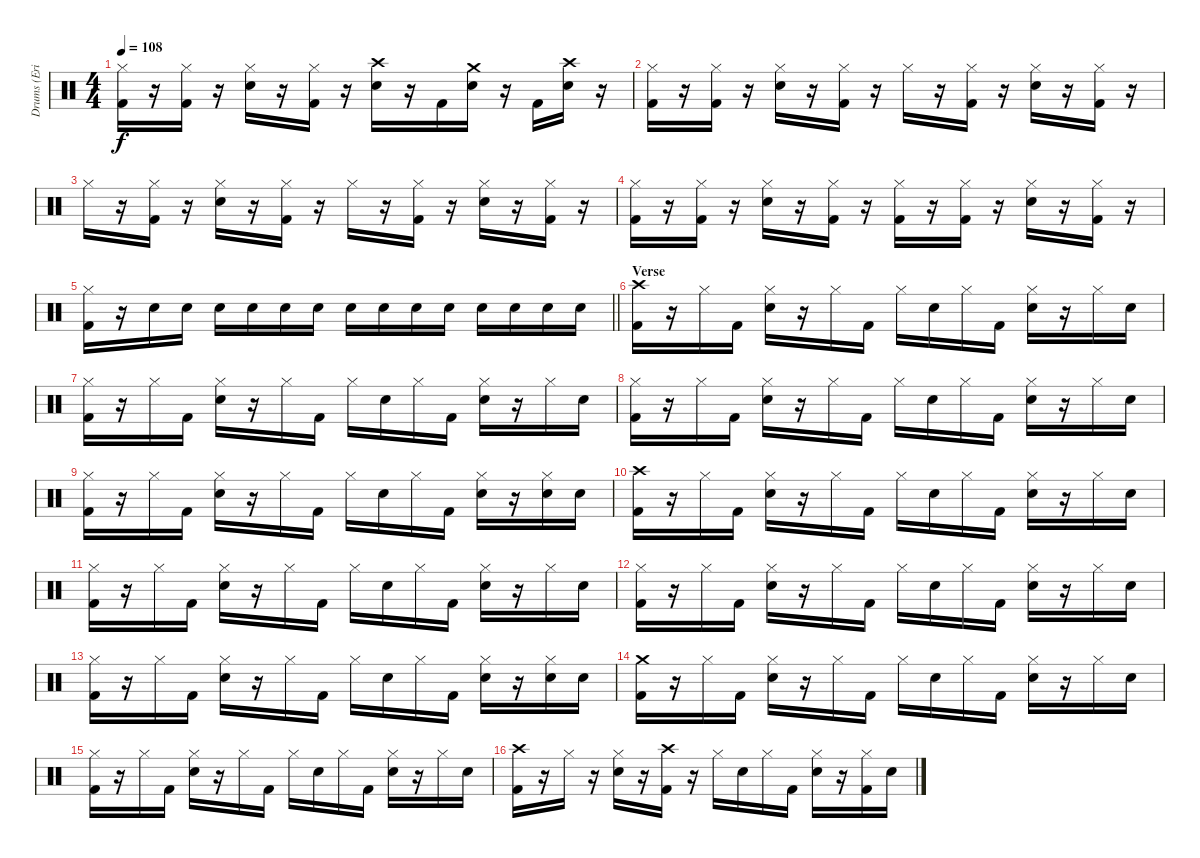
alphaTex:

\track ("Drums (Eric Kretz)" "Drums (Eri") {instrument percussion}
\staff {score}
\articulation defaults
\ts (4 4)
\tempo 108
\clef neutral
\ks c
("Hi-Hat (closed)" "Kick (hit) 2").16{dy f} r.16 ("Hi-Hat (closed)" "Kick (hit) 2").16 r.16 ("Hi-Hat (closed)" "Electric Snare (hit)").16 r.16 ("Hi-Hat (closed)" "Kick (hit) 2").16 r.16 ("Crash high (hit)" "Electric Snare (hit)").16 r.16 "Kick (hit) 2".16 ("Crash medium (hit)" "Electric Snare (hit)").16 r.16 "Kick (hit) 2".16 ("Crash high (hit)" "Electric Snare (hit)").16 r.16 |
("Hi-Hat (closed)" "Kick (hit) 2").16 r.16 ("Hi-Hat (closed)" "Kick (hit) 2").16 r.16 ("Hi-Hat (closed)" "Electric Snare (hit)").16 r.16 ("Hi-Hat (closed)" "Kick (hit) 2").16 r.16 "Hi-Hat (closed)".16 r.16 ("Hi-Hat (closed)" "Kick (hit) 2").16 r.16 ("Hi-Hat (closed)" "Electric Snare (hit)").16 r.16 ("Hi-Hat (closed)" "Kick (hit) 2").16 r.16 |
"Hi-Hat (closed)".16 r.16 ("Hi-Hat (closed)" "Kick (hit) 2").16 r.16 ("Hi-Hat (closed)" "Electric Snare (hit)").16 r.16 ("Hi-Hat (closed)" "Kick (hit) 2").16 r.16 "Hi-Hat (closed)".16 r.16 ("Hi-Hat (closed)" "Kick (hit) 2").16 r.16 ("Hi-Hat (closed)" "Electric Snare (hit)").16 r.16 ("Hi-Hat (closed)" "Kick (hit) 2").16 r.16 |
("Hi-Hat (closed)" "Kick (hit) 2").16 r.16 ("Hi-Hat (closed)" "Kick (hit) 2").16 r.16 ("Hi-Hat (closed)" "Electric Snare (hit)").16 r.16 ("Hi-Hat (closed)" "Kick (hit) 2").16 r.16 ("Hi-Hat (closed)" "Kick (hit) 2").16 r.16 ("Hi-Hat (closed)" "Kick (hit) 2").16 r.16 ("Hi-Hat (closed)" "Electric Snare (hit)").16 r.16 ("Hi-Hat (closed)" "Kick (hit) 2").16 r.16 |
\barLineRight lightlight
("Hi-Hat (closed)" "Kick (hit) 2").16 r.16 "Electric Snare (hit)".16 "Electric Snare (hit)".16 "Electric Snare (hit)".16 "Electric Snare (hit)".16 "Electric Snare (hit)".16 "Electric Snare (hit)".16 "Electric Snare (hit)".16 "Electric Snare (hit)".16 "Electric Snare (hit)".16 "Electric Snare (hit)".16 "Electric Snare (hit)".16 "Electric Snare (hit)".16 "Electric Snare (hit)".16 "Electric Snare (hit)".16 |
\section ("" "Verse")
("Crash high (hit)" "Kick (hit) 2").16 r.16 "Hi-Hat (closed)".16 "Kick (hit) 2".16 ("Hi-Hat (closed)" "Electric Snare (hit)").16 r.16 "Hi-Hat (closed)".16 "Kick (hit) 2".16 "Hi-Hat (closed)".16 "Electric Snare (hit)".16 "Hi-Hat (closed)".16 "Kick (hit) 2".16 ("Hi-Hat (closed)" "Electric Snare (hit)").16 r.16 "Hi-Hat (closed)".16 "Electric Snare (hit)".16 |
("Hi-Hat (closed)" "Kick (hit) 2").16 r.16 "Hi-Hat (closed)".16 "Kick (hit) 2".16 ("Hi-Hat (closed)" "Electric Snare (hit)").16 r.16 "Hi-Hat (closed)".16 "Kick (hit) 2".16 "Hi-Hat (closed)".16 "Electric Snare (hit)".16 "Hi-Hat (closed)".16 "Kick (hit) 2".16 ("Hi-Hat (closed)" "Electric Snare (hit)").16 r.16 "Hi-Hat (closed)".16 "Electric Snare (hit)".16 |
("Hi-Hat (closed)" "Kick (hit) 2").16 r.16 "Hi-Hat (closed)".16 "Kick (hit) 2".16 ("Hi-Hat (closed)" "Electric Snare (hit)").16 r.16 "Hi-Hat (closed)".16 "Kick (hit) 2".16 "Hi-Hat (closed)".16 "Electric Snare (hit)".16 "Hi-Hat (closed)".16 "Kick (hit) 2".16 ("Hi-Hat (closed)" "Electric Snare (hit)").16 r.16 "Hi-Hat (closed)".16 "Electric Snare (hit)".16 |
("Hi-Hat (closed)" "Kick (hit) 2").16 r.16 "Hi-Hat (closed)".16 "Kick (hit) 2".16 ("Hi-Hat (closed)" "Electric Snare (hit)").16 r.16 "Hi-Hat (closed)".16 "Kick (hit) 2".16 "Hi-Hat (closed)".16 "Electric Snare (hit)".16 "Hi-Hat (closed)".16 "Kick (hit) 2".16 ("Hi-Hat (closed)" "Electric Snare (hit)").16 r.16 ("Hi-Hat (closed)" "Electric Snare (hit)").16 "Electric Snare (hit)".16 |
("Crash high (hit)" "Kick (hit) 2").16 r.16 "Hi-Hat (closed)".16 "Kick (hit) 2".16 ("Hi-Hat (closed)" "Electric Snare (hit)").16 r.16 "Hi-Hat (closed)".16 "Kick (hit) 2".16 "Hi-Hat (closed)".16 "Electric Snare (hit)".16 "Hi-Hat (closed)".16 "Kick (hit) 2".16 ("Hi-Hat (closed)" "Electric Snare (hit)").16 r.16 "Hi-Hat (closed)".16 "Electric Snare (hit)".16 |
("Hi-Hat (closed)" "Kick (hit) 2").16 r.16 "Hi-Hat (closed)".16 "Kick (hit) 2".16 ("Hi-Hat (closed)" "Electric Snare (hit)").16 r.16 "Hi-Hat (closed)".16 "Kick (hit) 2".16 "Hi-Hat (closed)".16 "Electric Snare (hit)".16 "Hi-Hat (closed)".16 "Kick (hit) 2".16 ("Hi-Hat (closed)" "Electric Snare (hit)").16 r.16 "Hi-Hat (closed)".16 "Electric Snare (hit)".16 |
("Hi-Hat (closed)" "Kick (hit) 2").16 r.16 "Hi-Hat (closed)".16 "Kick (hit) 2".16 ("Hi-Hat (closed)" "Electric Snare (hit)").16 r.16 "Hi-Hat (closed)".16 "Kick (hit) 2".16 "Hi-Hat (closed)".16 "Electric Snare (hit)".16 "Hi-Hat (closed)".16 "Kick (hit) 2".16 ("Hi-Hat (closed)" "Electric Snare (hit)").16 r.16 "Hi-Hat (closed)".16 "Electric Snare (hit)".16 |
("Hi-Hat (closed)" "Kick (hit) 2").16 r.16 "Hi-Hat (closed)".16 "Kick (hit) 2".16 ("Hi-Hat (closed)" "Electric Snare (hit)").16 r.16 "Hi-Hat (closed)".16 "Kick (hit) 2".16 "Hi-Hat (closed)".16 "Electric Snare (hit)".16 "Hi-Hat (closed)".16 "Kick (hit) 2".16 ("Hi-Hat (closed)" "Electric Snare (hit)").16 r.16 ("Hi-Hat (closed)" "Electric Snare (hit)").16 "Electric Snare (hit)".16 |
("Crash medium (hit)" "Kick (hit) 2").16 r.16 "Hi-Hat (closed)".16 "Kick (hit) 2".16 ("Hi-Hat (closed)" "Electric Snare (hit)").16 r.16 "Hi-Hat (closed)".16 "Kick (hit) 2".16 "Hi-Hat (closed)".16 "Electric Snare (hit)".16 "Hi-Hat (closed)".16 "Kick (hit) 2".16 ("Hi-Hat (closed)" "Electric Snare (hit)").16 r.16 "Hi-Hat (closed)".16 "Electric Snare (hit)".16 |
("Hi-Hat (closed)" "Kick (hit) 2").16 r.16 "Hi-Hat (closed)".16 "Kick (hit) 2".16 ("Hi-Hat (closed)" "Electric Snare (hit)").16 r.16 "Hi-Hat (closed)".16 "Kick (hit) 2".16 "Hi-Hat (closed)".16 "Electric Snare (hit)".16 "Hi-Hat (closed)".16 "Kick (hit) 2".16 ("Hi-Hat (closed)" "Electric Snare (hit)").16 r.16 "Hi-Hat (closed)".16 "Electric Snare (hit)".16 |
("Crash high (hit)" "Kick (hit) 2").16 r.16 "Hi-Hat (closed)".16 r.16 ("Hi-Hat (closed)" "Electric Snare (hit)").16 r.16 ("Crash high (hit)" "Kick (hit) 2").16 r.16 "Hi-Hat (closed)".16 "Electric Snare (hit)".16 "Hi-Hat (closed)".16 "Kick (hit) 2".16 ("Hi-Hat (closed)" "Electric Snare (hit)").16 r.16 ("Hi-Hat (closed)" "Kick (hit) 2").16 "Electric Snare (hit)".16
